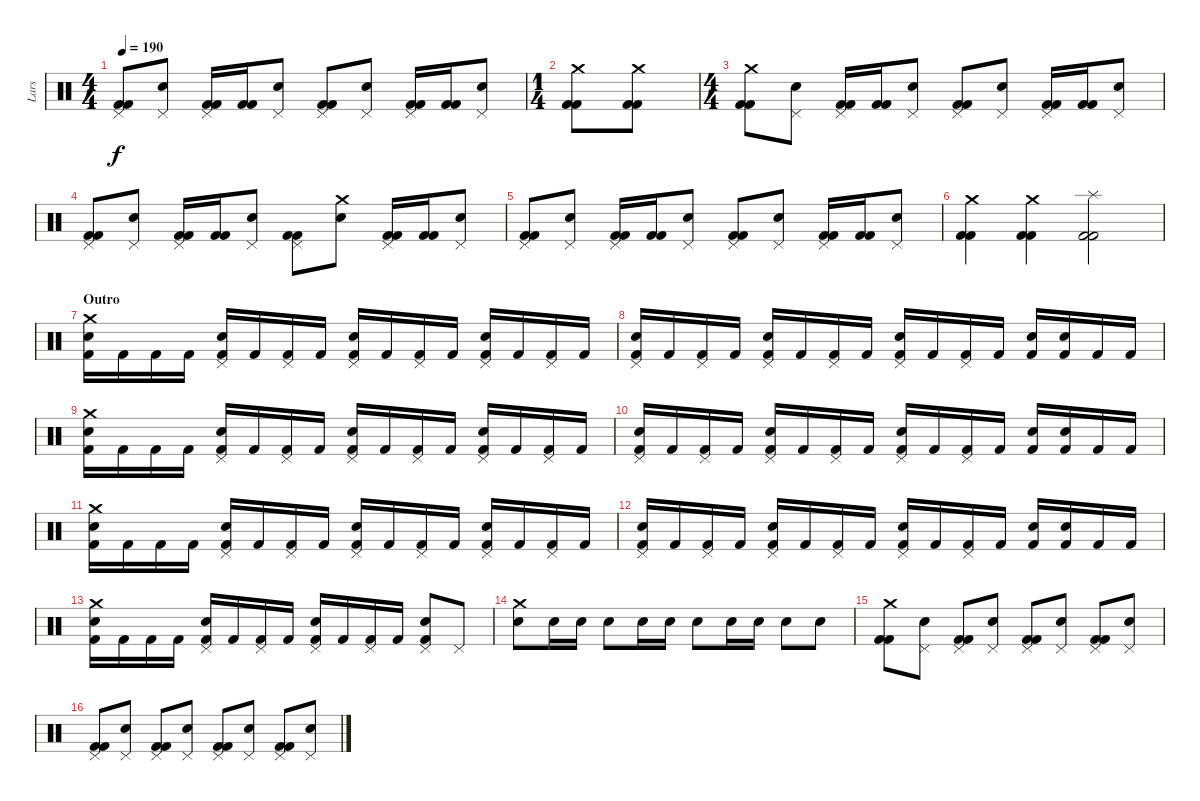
\track ("Lars" "Lars") {instrument percussion}
\staff {score}
\articulation defaults
\ts (4 4)
\tempo 190
\clef neutral
\ks c
("Pedal Hi-Hat (hit)" "Kick (hit) 2" "Kick (hit) 2").8{dy f} ("Pedal Hi-Hat (hit)" "Electric Snare (hit)").8 ("Pedal Hi-Hat (hit)" "Kick (hit) 2" "Kick (hit) 2").16 ("Kick (hit) 2" "Kick (hit) 2").16 ("Pedal Hi-Hat (hit)" "Electric Snare (hit)").8 ("Pedal Hi-Hat (hit)" "Kick (hit) 2" "Kick (hit) 2").8 ("Pedal Hi-Hat (hit)" "Electric Snare (hit)").8 ("Pedal Hi-Hat (hit)" "Kick (hit) 2" "Kick (hit) 2").16 ("Kick (hit) 2" "Kick (hit) 2").16 ("Pedal Hi-Hat (hit)" "Electric Snare (hit)").8 |
\ts (1 4)
("Crash medium (hit)" "Kick (hit) 2" "Kick (hit) 2").8 ("Crash medium (hit)" "Kick (hit) 2" "Kick (hit) 2").8 |
\ts (4 4)
("Crash medium (hit)" "Kick (hit) 2" "Kick (hit) 2").8 ("Pedal Hi-Hat (hit)" "Electric Snare (hit)").8 ("Pedal Hi-Hat (hit)" "Kick (hit) 2" "Kick (hit) 2").16 ("Kick (hit) 2" "Kick (hit) 2").16 ("Pedal Hi-Hat (hit)" "Electric Snare (hit)").8 ("Pedal Hi-Hat (hit)" "Kick (hit) 2" "Kick (hit) 2").8 ("Pedal Hi-Hat (hit)" "Electric Snare (hit)").8 ("Pedal Hi-Hat (hit)" "Kick (hit) 2" "Kick (hit) 2").16 ("Kick (hit) 2" "Kick (hit) 2").16 ("Pedal Hi-Hat (hit)" "Electric Snare (hit)").8 |
("Pedal Hi-Hat (hit)" "Kick (hit) 2" "Kick (hit) 2").8 ("Pedal Hi-Hat (hit)" "Electric Snare (hit)").8 ("Pedal Hi-Hat (hit)" "Kick (hit) 2" "Kick (hit) 2").16 ("Kick (hit) 2" "Kick (hit) 2").16 ("Pedal Hi-Hat (hit)" "Electric Snare (hit)").8 ("Pedal Hi-Hat (hit)" "Kick (hit) 2" "Kick (hit) 2").8 ("Crash medium (hit)" "Electric Snare (hit)").8 ("Pedal Hi-Hat (hit)" "Kick (hit) 2" "Kick (hit) 2").16 ("Kick (hit) 2" "Kick (hit) 2").16 ("Pedal Hi-Hat (hit)" "Electric Snare (hit)").8 |
("Pedal Hi-Hat (hit)" "Kick (hit) 2" "Kick (hit) 2").8 ("Pedal Hi-Hat (hit)" "Electric Snare (hit)").8 ("Pedal Hi-Hat (hit)" "Kick (hit) 2" "Kick (hit) 2").16 ("Kick (hit) 2" "Kick (hit) 2").16 ("Pedal Hi-Hat (hit)" "Electric Snare (hit)").8 ("Pedal Hi-Hat (hit)" "Kick (hit) 2" "Kick (hit) 2").8 ("Pedal Hi-Hat (hit)" "Electric Snare (hit)").8 ("Pedal Hi-Hat (hit)" "Kick (hit) 2" "Kick (hit) 2").16 ("Kick (hit) 2" "Kick (hit) 2").16 ("Pedal Hi-Hat (hit)" "Electric Snare (hit)").8 |
("Crash medium (hit)" "Kick (hit) 2" "Kick (hit) 2").4 ("Crash medium (hit)" "Kick (hit) 2" "Kick (hit) 2").4 ("Splash (hit)" "Kick (hit) 2" "Kick (hit) 2").2 |
\section ("" "Outro")
("Crash medium (hit)" "Kick (hit) 2" "Electric Snare (hit)").16 "Kick (hit) 2".16 "Kick (hit) 2".16 "Kick (hit) 2".16 ("Pedal Hi-Hat (hit)" "Kick (hit) 2" "Electric Snare (hit)").16 "Kick (hit) 2".16 ("Pedal Hi-Hat (hit)" "Kick (hit) 2").16 "Kick (hit) 2".16 ("Pedal Hi-Hat (hit)" "Kick (hit) 2" "Electric Snare (hit)").16 "Kick (hit) 2".16 ("Pedal Hi-Hat (hit)" "Kick (hit) 2").16 "Kick (hit) 2".16 ("Pedal Hi-Hat (hit)" "Kick (hit) 2" "Electric Snare (hit)").16 "Kick (hit) 2".16 ("Pedal Hi-Hat (hit)" "Kick (hit) 2").16 "Kick (hit) 2".16 |
("Pedal Hi-Hat (hit)" "Kick (hit) 2" "Electric Snare (hit)").16 "Kick (hit) 2".16 ("Pedal Hi-Hat (hit)" "Kick (hit) 2").16 "Kick (hit) 2".16 ("Pedal Hi-Hat (hit)" "Kick (hit) 2" "Electric Snare (hit)").16 "Kick (hit) 2".16 ("Pedal Hi-Hat (hit)" "Kick (hit) 2").16 "Kick (hit) 2".16 ("Pedal Hi-Hat (hit)" "Kick (hit) 2" "Electric Snare (hit)").16 "Kick (hit) 2".16 ("Pedal Hi-Hat (hit)" "Kick (hit) 2").16 "Kick (hit) 2".16 ("Kick (hit) 2" "Electric Snare (hit)").16 ("Kick (hit) 2" "Electric Snare (hit)").16 "Kick (hit) 2".16 "Kick (hit) 2".16 |
("Crash medium (hit)" "Kick (hit) 2" "Electric Snare (hit)").16 "Kick (hit) 2".16 "Kick (hit) 2".16 "Kick (hit) 2".16 ("Pedal Hi-Hat (hit)" "Kick (hit) 2" "Electric Snare (hit)").16 "Kick (hit) 2".16 ("Pedal Hi-Hat (hit)" "Kick (hit) 2").16 "Kick (hit) 2".16 ("Pedal Hi-Hat (hit)" "Kick (hit) 2" "Electric Snare (hit)").16 "Kick (hit) 2".16 ("Pedal Hi-Hat (hit)" "Kick (hit) 2").16 "Kick (hit) 2".16 ("Pedal Hi-Hat (hit)" "Kick (hit) 2" "Electric Snare (hit)").16 "Kick (hit) 2".16 ("Pedal Hi-Hat (hit)" "Kick (hit) 2").16 "Kick (hit) 2".16 |
("Pedal Hi-Hat (hit)" "Kick (hit) 2" "Electric Snare (hit)").16 "Kick (hit) 2".16 ("Pedal Hi-Hat (hit)" "Kick (hit) 2").16 "Kick (hit) 2".16 ("Pedal Hi-Hat (hit)" "Kick (hit) 2" "Electric Snare (hit)").16 "Kick (hit) 2".16 ("Pedal Hi-Hat (hit)" "Kick (hit) 2").16 "Kick (hit) 2".16 ("Pedal Hi-Hat (hit)" "Kick (hit) 2" "Electric Snare (hit)").16 "Kick (hit) 2".16 ("Pedal Hi-Hat (hit)" "Kick (hit) 2").16 "Kick (hit) 2".16 ("Kick (hit) 2" "Electric Snare (hit)").16 ("Kick (hit) 2" "Electric Snare (hit)").16 "Kick (hit) 2".16 "Kick (hit) 2".16 |
("Crash medium (hit)" "Kick (hit) 2" "Electric Snare (hit)").16 "Kick (hit) 2".16 "Kick (hit) 2".16 "Kick (hit) 2".16 ("Pedal Hi-Hat (hit)" "Kick (hit) 2" "Electric Snare (hit)").16 "Kick (hit) 2".16 ("Pedal Hi-Hat (hit)" "Kick (hit) 2").16 "Kick (hit) 2".16 ("Pedal Hi-Hat (hit)" "Kick (hit) 2" "Electric Snare (hit)").16 "Kick (hit) 2".16 ("Pedal Hi-Hat (hit)" "Kick (hit) 2").16 "Kick (hit) 2".16 ("Pedal Hi-Hat (hit)" "Kick (hit) 2" "Electric Snare (hit)").16 "Kick (hit) 2".16 ("Pedal Hi-Hat (hit)" "Kick (hit) 2").16 "Kick (hit) 2".16 |
("Pedal Hi-Hat (hit)" "Kick (hit) 2" "Electric Snare (hit)").16 "Kick (hit) 2".16 ("Pedal Hi-Hat (hit)" "Kick (hit) 2").16 "Kick (hit) 2".16 ("Pedal Hi-Hat (hit)" "Kick (hit) 2" "Electric Snare (hit)").16 "Kick (hit) 2".16 ("Pedal Hi-Hat (hit)" "Kick (hit) 2").16 "Kick (hit) 2".16 ("Pedal Hi-Hat (hit)" "Kick (hit) 2" "Electric Snare (hit)").16 "Kick (hit) 2".16 ("Pedal Hi-Hat (hit)" "Kick (hit) 2").16 "Kick (hit) 2".16 ("Kick (hit) 2" "Electric Snare (hit)").16 ("Kick (hit) 2" "Electric Snare (hit)").16 "Kick (hit) 2".16 "Kick (hit) 2".16 |
("Crash medium (hit)" "Kick (hit) 2" "Electric Snare (hit)").16 "Kick (hit) 2".16 "Kick (hit) 2".16 "Kick (hit) 2".16 ("Pedal Hi-Hat (hit)" "Kick (hit) 2" "Electric Snare (hit)").16 "Kick (hit) 2".16 ("Pedal Hi-Hat (hit)" "Kick (hit) 2").16 "Kick (hit) 2".16 ("Pedal Hi-Hat (hit)" "Kick (hit) 2" "Electric Snare (hit)").16 "Kick (hit) 2".16 ("Pedal Hi-Hat (hit)" "Kick (hit) 2").16 "Kick (hit) 2".16 ("Pedal Hi-Hat (hit)" "Kick (hit) 2" "Electric Snare (hit)").8 "Pedal Hi-Hat (hit)".8 |
("Crash medium (hit)" "Electric Snare (hit)").8 "Electric Snare (hit)".16 "Electric Snare (hit)".16 "Electric Snare (hit)".8 "Electric Snare (hit)".16 "Electric Snare (hit)".16 "Electric Snare (hit)".8 "Electric Snare (hit)".16 "Electric Snare (hit)".16 "Electric Snare (hit)".8 "Electric Snare (hit)".8 |
("Crash medium (hit)" "Kick (hit) 2" "Kick (hit) 2").8 ("Pedal Hi-Hat (hit)" "Electric Snare (hit)").8 ("Pedal Hi-Hat (hit)" "Kick (hit) 2" "Kick (hit) 2").8 ("Pedal Hi-Hat (hit)" "Electric Snare (hit)").8 ("Pedal Hi-Hat (hit)" "Kick (hit) 2" "Kick (hit) 2").8 ("Pedal Hi-Hat (hit)" "Electric Snare (hit)").8 ("Pedal Hi-Hat (hit)" "Kick (hit) 2" "Kick (hit) 2").8 ("Pedal Hi-Hat (hit)" "Electric Snare (hit)").8 |
("Pedal Hi-Hat (hit)" "Kick (hit) 2" "Kick (hit) 2").8 ("Pedal Hi-Hat (hit)" "Electric Snare (hit)").8 ("Pedal Hi-Hat (hit)" "Kick (hit) 2" "Kick (hit) 2").8 ("Pedal Hi-Hat (hit)" "Electric Snare (hit)").8 ("Pedal Hi-Hat (hit)" "Kick (hit) 2" "Kick (hit) 2").8 ("Pedal Hi-Hat (hit)" "Electric Snare (hit)").8 ("Pedal Hi-Hat (hit)" "Kick (hit) 2" "Kick (hit) 2").8 ("Pedal Hi-Hat (hit)" "Electric Snare (hit)").8
